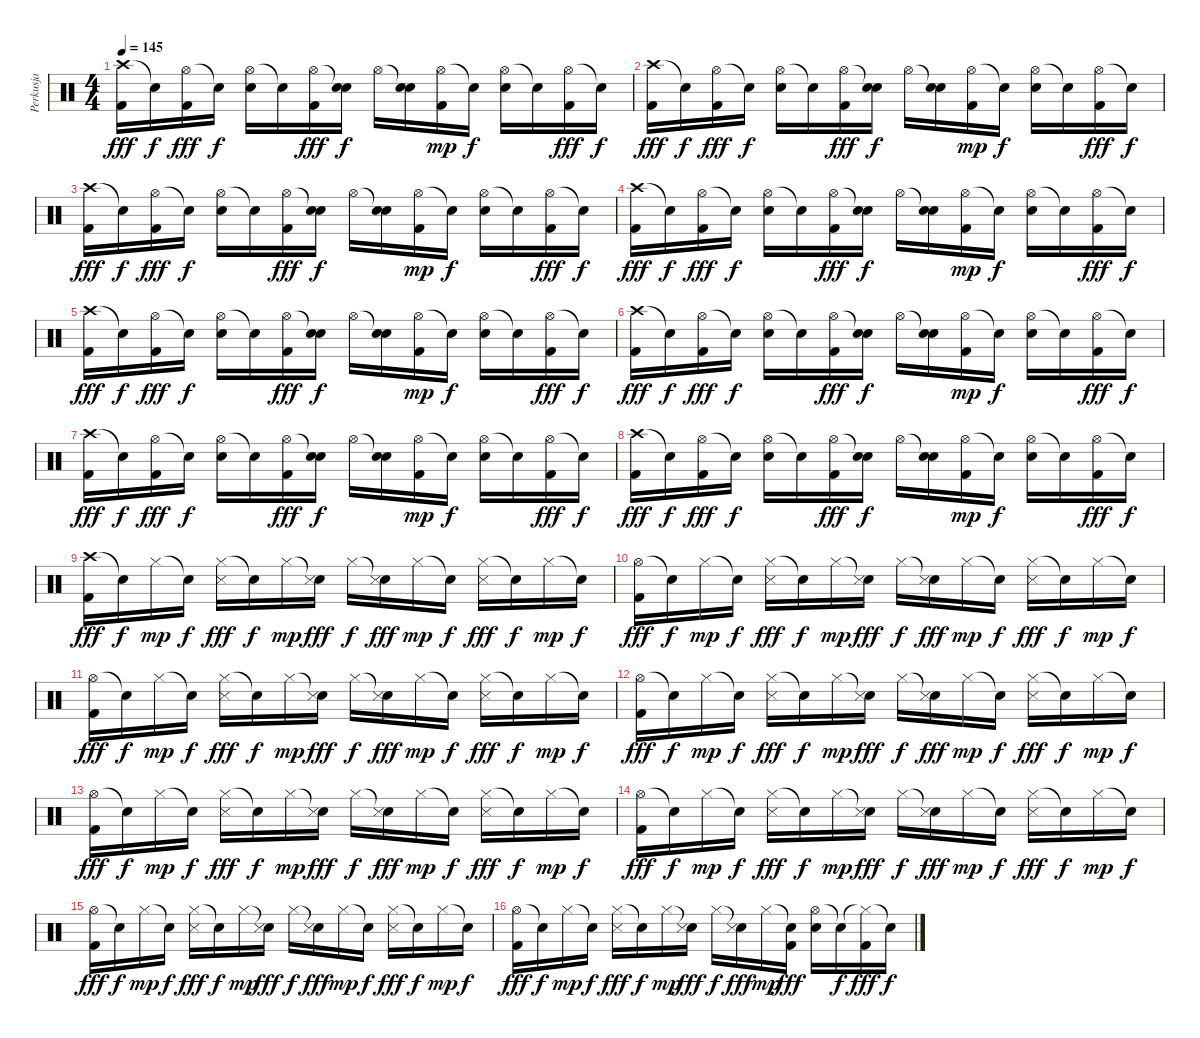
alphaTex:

\track ("Perkusja" "Perkusja") {instrument percussion}
\staff {score}
\articulation defaults
\ts (4 4)
\tempo 145
\clef neutral
\ks c
("Crash high (hit)" "Kick (hit) 2").16{dy fff} "Snare (hit)"{t}.16{dy f} ("Hi-Hat (open)" "Kick (hit) 2").16{dy fff} "Snare (hit)"{t}.16{dy f} ("Hi-Hat (open)" "Electric Snare (hit)").16 "Snare (hit)"{t}.16 ("Hi-Hat (open)" "Kick (hit) 2").16{dy fff} ("Snare (hit)"{t} "Electric Snare (hit)").16{dy f} "Hi-Hat (open)".16 ("Snare (hit)"{t} "Electric Snare (hit)").16 ("Hi-Hat (open)" "Kick (hit) 2").16{dy mp} "Snare (hit)"{t}.16{dy f} ("Hi-Hat (open)" "Electric Snare (hit)").16 "Snare (hit)"{t}.16 ("Hi-Hat (open)" "Kick (hit) 2").16{dy fff} "Snare (hit)"{t}.16{dy f} |
("Crash high (hit)" "Kick (hit) 2").16{dy fff} "Snare (hit)"{t}.16{dy f} ("Hi-Hat (open)" "Kick (hit) 2").16{dy fff} "Snare (hit)"{t}.16{dy f} ("Hi-Hat (open)" "Electric Snare (hit)").16 "Snare (hit)"{t}.16 ("Hi-Hat (open)" "Kick (hit) 2").16{dy fff} ("Snare (hit)"{t} "Electric Snare (hit)").16{dy f} "Hi-Hat (open)".16 ("Snare (hit)"{t} "Electric Snare (hit)").16 ("Hi-Hat (open)" "Kick (hit) 2").16{dy mp} "Snare (hit)"{t}.16{dy f} ("Hi-Hat (open)" "Electric Snare (hit)").16 "Snare (hit)"{t}.16 ("Hi-Hat (open)" "Kick (hit) 2").16{dy fff} "Snare (hit)"{t}.16{dy f} |
("Crash high (hit)" "Kick (hit) 2").16{dy fff} "Snare (hit)"{t}.16{dy f} ("Hi-Hat (open)" "Kick (hit) 2").16{dy fff} "Snare (hit)"{t}.16{dy f} ("Hi-Hat (open)" "Electric Snare (hit)").16 "Snare (hit)"{t}.16 ("Hi-Hat (open)" "Kick (hit) 2").16{dy fff} ("Snare (hit)"{t} "Electric Snare (hit)").16{dy f} "Hi-Hat (open)".16 ("Snare (hit)"{t} "Electric Snare (hit)").16 ("Hi-Hat (open)" "Kick (hit) 2").16{dy mp} "Snare (hit)"{t}.16{dy f} ("Hi-Hat (open)" "Electric Snare (hit)").16 "Snare (hit)"{t}.16 ("Hi-Hat (open)" "Kick (hit) 2").16{dy fff} "Snare (hit)"{t}.16{dy f} |
("Crash high (hit)" "Kick (hit) 2").16{dy fff} "Snare (hit)"{t}.16{dy f} ("Hi-Hat (open)" "Kick (hit) 2").16{dy fff} "Snare (hit)"{t}.16{dy f} ("Hi-Hat (open)" "Electric Snare (hit)").16 "Snare (hit)"{t}.16 ("Hi-Hat (open)" "Kick (hit) 2").16{dy fff} ("Snare (hit)"{t} "Electric Snare (hit)").16{dy f} "Hi-Hat (open)".16 ("Snare (hit)"{t} "Electric Snare (hit)").16 ("Hi-Hat (open)" "Kick (hit) 2").16{dy mp} "Snare (hit)"{t}.16{dy f} ("Hi-Hat (open)" "Electric Snare (hit)").16 "Snare (hit)"{t}.16 ("Hi-Hat (open)" "Kick (hit) 2").16{dy fff} "Snare (hit)"{t}.16{dy f} |
("Crash high (hit)" "Kick (hit) 2").16{dy fff} "Snare (hit)"{t}.16{dy f} ("Hi-Hat (open)" "Kick (hit) 2").16{dy fff} "Snare (hit)"{t}.16{dy f} ("Hi-Hat (open)" "Electric Snare (hit)").16 "Snare (hit)"{t}.16 ("Hi-Hat (open)" "Kick (hit) 2").16{dy fff} ("Snare (hit)"{t} "Electric Snare (hit)").16{dy f} "Hi-Hat (open)".16 ("Snare (hit)"{t} "Electric Snare (hit)").16 ("Hi-Hat (open)" "Kick (hit) 2").16{dy mp} "Snare (hit)"{t}.16{dy f} ("Hi-Hat (open)" "Electric Snare (hit)").16 "Snare (hit)"{t}.16 ("Hi-Hat (open)" "Kick (hit) 2").16{dy fff} "Snare (hit)"{t}.16{dy f} |
("Crash high (hit)" "Kick (hit) 2").16{dy fff} "Snare (hit)"{t}.16{dy f} ("Hi-Hat (open)" "Kick (hit) 2").16{dy fff} "Snare (hit)"{t}.16{dy f} ("Hi-Hat (open)" "Electric Snare (hit)").16 "Snare (hit)"{t}.16 ("Hi-Hat (open)" "Kick (hit) 2").16{dy fff} ("Snare (hit)"{t} "Electric Snare (hit)").16{dy f} "Hi-Hat (open)".16 ("Snare (hit)"{t} "Electric Snare (hit)").16 ("Hi-Hat (open)" "Kick (hit) 2").16{dy mp} "Snare (hit)"{t}.16{dy f} ("Hi-Hat (open)" "Electric Snare (hit)").16 "Snare (hit)"{t}.16 ("Hi-Hat (open)" "Kick (hit) 2").16{dy fff} "Snare (hit)"{t}.16{dy f} |
("Crash high (hit)" "Kick (hit) 2").16{dy fff} "Snare (hit)"{t}.16{dy f} ("Hi-Hat (open)" "Kick (hit) 2").16{dy fff} "Snare (hit)"{t}.16{dy f} ("Hi-Hat (open)" "Electric Snare (hit)").16 "Snare (hit)"{t}.16 ("Hi-Hat (open)" "Kick (hit) 2").16{dy fff} ("Snare (hit)"{t} "Electric Snare (hit)").16{dy f} "Hi-Hat (open)".16 ("Snare (hit)"{t} "Electric Snare (hit)").16 ("Hi-Hat (open)" "Kick (hit) 2").16{dy mp} "Snare (hit)"{t}.16{dy f} ("Hi-Hat (open)" "Electric Snare (hit)").16 "Snare (hit)"{t}.16 ("Hi-Hat (open)" "Kick (hit) 2").16{dy fff} "Snare (hit)"{t}.16{dy f} |
("Crash high (hit)" "Kick (hit) 2").16{dy fff} "Snare (hit)"{t}.16{dy f} ("Hi-Hat (open)" "Kick (hit) 2").16{dy fff} "Snare (hit)"{t}.16{dy f} ("Hi-Hat (open)" "Electric Snare (hit)").16 "Snare (hit)"{t}.16 ("Hi-Hat (open)" "Kick (hit) 2").16{dy fff} ("Snare (hit)"{t} "Electric Snare (hit)").16{dy f} "Hi-Hat (open)".16 ("Snare (hit)"{t} "Electric Snare (hit)").16 ("Hi-Hat (open)" "Kick (hit) 2").16{dy mp} "Snare (hit)"{t}.16{dy f} ("Hi-Hat (open)" "Electric Snare (hit)").16 "Snare (hit)"{t}.16 ("Hi-Hat (open)" "Kick (hit) 2").16{dy fff} "Snare (hit)"{t}.16{dy f} |
("Crash high (hit)" "Kick (hit) 2").16{dy fff} "Snare (hit)"{t}.16{dy f} "Hi-Hat (closed)".16{dy mp} "Snare (hit)"{t}.16{dy f} ("Hi-Hat (closed)" "Snare (side stick) 3").16{dy fff} "Snare (hit)"{t}.16{dy f} "Hi-Hat (closed)".16{dy mp} ("Snare (hit)"{t} "Snare (side stick) 3").16{dy fff} "Hi-Hat (closed)".16{dy f} ("Snare (hit)"{t} "Snare (side stick) 3").16{dy fff} "Hi-Hat (closed)".16{dy mp} "Snare (hit)"{t}.16{dy f} ("Hi-Hat (closed)" "Snare (side stick) 3").16{dy fff} "Snare (hit)"{t}.16{dy f} "Hi-Hat (closed)".16{dy mp} "Snare (hit)"{t}.16{dy f} |
("Hi-Hat (open)" "Kick (hit) 2").16{dy fff} "Snare (hit)"{t}.16{dy f} "Hi-Hat (closed)".16{dy mp} "Snare (hit)"{t}.16{dy f} ("Hi-Hat (closed)" "Snare (side stick) 3").16{dy fff} "Snare (hit)"{t}.16{dy f} "Hi-Hat (closed)".16{dy mp} ("Snare (hit)"{t} "Snare (side stick) 3").16{dy fff} "Hi-Hat (closed)".16{dy f} ("Snare (hit)"{t} "Snare (side stick) 3").16{dy fff} "Hi-Hat (closed)".16{dy mp} "Snare (hit)"{t}.16{dy f} ("Hi-Hat (closed)" "Snare (side stick) 3").16{dy fff} "Snare (hit)"{t}.16{dy f} "Hi-Hat (closed)".16{dy mp} "Snare (hit)"{t}.16{dy f} |
("Hi-Hat (open)" "Kick (hit) 2").16{dy fff} "Snare (hit)"{t}.16{dy f} "Hi-Hat (closed)".16{dy mp} "Snare (hit)"{t}.16{dy f} ("Hi-Hat (closed)" "Snare (side stick) 3").16{dy fff} "Snare (hit)"{t}.16{dy f} "Hi-Hat (closed)".16{dy mp} ("Snare (hit)"{t} "Snare (side stick) 3").16{dy fff} "Hi-Hat (closed)".16{dy f} ("Snare (hit)"{t} "Snare (side stick) 3").16{dy fff} "Hi-Hat (closed)".16{dy mp} "Snare (hit)"{t}.16{dy f} ("Hi-Hat (closed)" "Snare (side stick) 3").16{dy fff} "Snare (hit)"{t}.16{dy f} "Hi-Hat (closed)".16{dy mp} "Snare (hit)"{t}.16{dy f} |
("Hi-Hat (open)" "Kick (hit) 2").16{dy fff} "Snare (hit)"{t}.16{dy f} "Hi-Hat (closed)".16{dy mp} "Snare (hit)"{t}.16{dy f} ("Hi-Hat (closed)" "Snare (side stick) 3").16{dy fff} "Snare (hit)"{t}.16{dy f} "Hi-Hat (closed)".16{dy mp} ("Snare (hit)"{t} "Snare (side stick) 3").16{dy fff} "Hi-Hat (closed)".16{dy f} ("Snare (hit)"{t} "Snare (side stick) 3").16{dy fff} "Hi-Hat (closed)".16{dy mp} "Snare (hit)"{t}.16{dy f} ("Hi-Hat (closed)" "Snare (side stick) 3").16{dy fff} "Snare (hit)"{t}.16{dy f} "Hi-Hat (closed)".16{dy mp} "Snare (hit)"{t}.16{dy f} |
("Hi-Hat (open)" "Kick (hit) 2").16{dy fff} "Snare (hit)"{t}.16{dy f} "Hi-Hat (closed)".16{dy mp} "Snare (hit)"{t}.16{dy f} ("Hi-Hat (closed)" "Snare (side stick) 3").16{dy fff} "Snare (hit)"{t}.16{dy f} "Hi-Hat (closed)".16{dy mp} ("Snare (hit)"{t} "Snare (side stick) 3").16{dy fff} "Hi-Hat (closed)".16{dy f} ("Snare (hit)"{t} "Snare (side stick) 3").16{dy fff} "Hi-Hat (closed)".16{dy mp} "Snare (hit)"{t}.16{dy f} ("Hi-Hat (closed)" "Snare (side stick) 3").16{dy fff} "Snare (hit)"{t}.16{dy f} "Hi-Hat (closed)".16{dy mp} "Snare (hit)"{t}.16{dy f} |
("Hi-Hat (open)" "Kick (hit) 2").16{dy fff} "Snare (hit)"{t}.16{dy f} "Hi-Hat (closed)".16{dy mp} "Snare (hit)"{t}.16{dy f} ("Hi-Hat (closed)" "Snare (side stick) 3").16{dy fff} "Snare (hit)"{t}.16{dy f} "Hi-Hat (closed)".16{dy mp} ("Snare (hit)"{t} "Snare (side stick) 3").16{dy fff} "Hi-Hat (closed)".16{dy f} ("Snare (hit)"{t} "Snare (side stick) 3").16{dy fff} "Hi-Hat (closed)".16{dy mp} "Snare (hit)"{t}.16{dy f} ("Hi-Hat (closed)" "Snare (side stick) 3").16{dy fff} "Snare (hit)"{t}.16{dy f} "Hi-Hat (closed)".16{dy mp} "Snare (hit)"{t}.16{dy f} |
("Hi-Hat (open)" "Kick (hit) 2").16{dy fff} "Snare (hit)"{t}.16{dy f} "Hi-Hat (closed)".16{dy mp} "Snare (hit)"{t}.16{dy f} ("Hi-Hat (closed)" "Snare (side stick) 3").16{dy fff} "Snare (hit)"{t}.16{dy f} "Hi-Hat (closed)".16{dy mp} ("Snare (hit)"{t} "Snare (side stick) 3").16{dy fff} "Hi-Hat (closed)".16{dy f} ("Snare (hit)"{t} "Snare (side stick) 3").16{dy fff} "Hi-Hat (closed)".16{dy mp} "Snare (hit)"{t}.16{dy f} ("Hi-Hat (closed)" "Snare (side stick) 3").16{dy fff} "Snare (hit)"{t}.16{dy f} "Hi-Hat (closed)".16{dy mp} "Snare (hit)"{t}.16{dy f} |
("Hi-Hat (open)" "Kick (hit) 2").16{dy fff} "Snare (hit)"{t}.16{dy f} "Hi-Hat (closed)".16{dy mp} "Snare (hit)"{t}.16{dy f} ("Hi-Hat (closed)" "Snare (side stick) 3").16{dy fff} "Snare (hit)"{t}.16{dy f} "Hi-Hat (closed)".16{dy mp} ("Snare (hit)"{t} "Snare (side stick) 3").16{dy fff} "Hi-Hat (closed)".16{dy f} ("Snare (hit)"{t} "Snare (side stick) 3").16{dy fff} "Hi-Hat (closed)".16{dy mp} ("Snare (hit)"{t} "Kick (hit) 2").16{dy fff} ("Hi-Hat (open)" "Electric Snare (hit)").16 "Snare (hit)"{t}.16{dy f} ("Hi-Hat (closed)"{t} "Kick (hit) 2").16{dy fff} "Snare (hit)"{t}.16{dy f}
